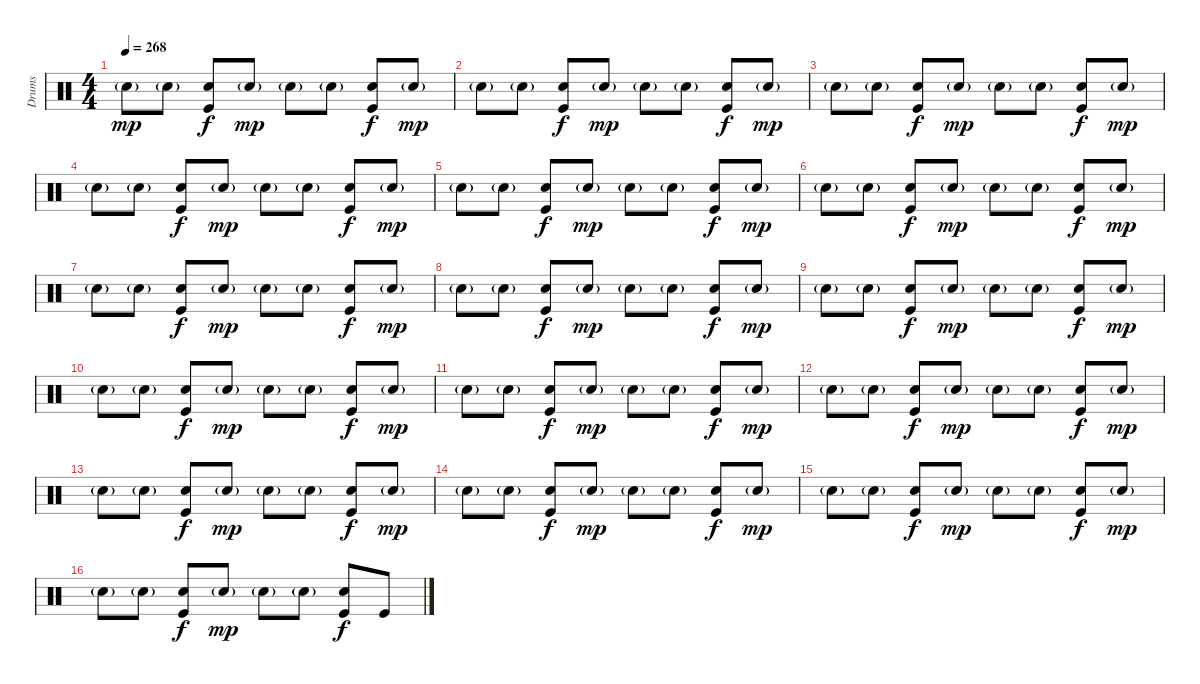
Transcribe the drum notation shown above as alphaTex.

\track ("Drums" "Drums") {instrument percussion}
\staff {score}
\articulation defaults
\ts (4 4)
\tempo 268
\clef neutral
\ks c "Electric Snare (hit)"{g}.8{dy mp} "Electric Snare (hit)"{g}.8
("Electric Snare (hit)" "Kick (hit)").8{dy f} "Electric Snare (hit)"{g}.8{dy mp} "Electric Snare (hit)"{g}.8 "Electric Snare (hit)"{g}.8 ("Electric Snare (hit)" "Kick (hit)").8{dy f} "Electric Snare (hit)"{g}.8{dy mp} |
"Electric Snare (hit)"{g}.8 "Electric Snare (hit)"{g}.8 ("Electric Snare (hit)" "Kick (hit)").8{dy f} "Electric Snare (hit)"{g}.8{dy mp} "Electric Snare (hit)"{g}.8 "Electric Snare (hit)"{g}.8 ("Electric Snare (hit)" "Kick (hit)").8{dy f} "Electric Snare (hit)"{g}.8{dy mp} |
"Electric Snare (hit)"{g}.8 "Electric Snare (hit)"{g}.8 ("Electric Snare (hit)" "Kick (hit)").8{dy f} "Electric Snare (hit)"{g}.8{dy mp} "Electric Snare (hit)"{g}.8 "Electric Snare (hit)"{g}.8 ("Electric Snare (hit)" "Kick (hit)").8{dy f} "Electric Snare (hit)"{g}.8{dy mp} |
"Electric Snare (hit)"{g}.8 "Electric Snare (hit)"{g}.8 ("Electric Snare (hit)" "Kick (hit)").8{dy f} "Electric Snare (hit)"{g}.8{dy mp} "Electric Snare (hit)"{g}.8 "Electric Snare (hit)"{g}.8 ("Electric Snare (hit)" "Kick (hit)").8{dy f} "Electric Snare (hit)"{g}.8{dy mp} |
"Electric Snare (hit)"{g}.8 "Electric Snare (hit)"{g}.8 ("Electric Snare (hit)" "Kick (hit)").8{dy f} "Electric Snare (hit)"{g}.8{dy mp} "Electric Snare (hit)"{g}.8 "Electric Snare (hit)"{g}.8 ("Electric Snare (hit)" "Kick (hit)").8{dy f} "Electric Snare (hit)"{g}.8{dy mp} |
"Electric Snare (hit)"{g}.8 "Electric Snare (hit)"{g}.8 ("Electric Snare (hit)" "Kick (hit)").8{dy f} "Electric Snare (hit)"{g}.8{dy mp} "Electric Snare (hit)"{g}.8 "Electric Snare (hit)"{g}.8 ("Electric Snare (hit)" "Kick (hit)").8{dy f} "Electric Snare (hit)"{g}.8{dy mp} |
"Electric Snare (hit)"{g}.8 "Electric Snare (hit)"{g}.8 ("Electric Snare (hit)" "Kick (hit)").8{dy f} "Electric Snare (hit)"{g}.8{dy mp} "Electric Snare (hit)"{g}.8 "Electric Snare (hit)"{g}.8 ("Electric Snare (hit)" "Kick (hit)").8{dy f} "Electric Snare (hit)"{g}.8{dy mp} |
"Electric Snare (hit)"{g}.8 "Electric Snare (hit)"{g}.8 ("Electric Snare (hit)" "Kick (hit)").8{dy f} "Electric Snare (hit)"{g}.8{dy mp} "Electric Snare (hit)"{g}.8 "Electric Snare (hit)"{g}.8 ("Electric Snare (hit)" "Kick (hit)").8{dy f} "Electric Snare (hit)"{g}.8{dy mp} |
"Electric Snare (hit)"{g}.8 "Electric Snare (hit)"{g}.8 ("Electric Snare (hit)" "Kick (hit)").8{dy f} "Electric Snare (hit)"{g}.8{dy mp} "Electric Snare (hit)"{g}.8 "Electric Snare (hit)"{g}.8 ("Electric Snare (hit)" "Kick (hit)").8{dy f} "Electric Snare (hit)"{g}.8{dy mp} |
"Electric Snare (hit)"{g}.8 "Electric Snare (hit)"{g}.8 ("Electric Snare (hit)" "Kick (hit)").8{dy f} "Electric Snare (hit)"{g}.8{dy mp} "Electric Snare (hit)"{g}.8 "Electric Snare (hit)"{g}.8 ("Electric Snare (hit)" "Kick (hit)").8{dy f} "Electric Snare (hit)"{g}.8{dy mp} |
"Electric Snare (hit)"{g}.8 "Electric Snare (hit)"{g}.8 ("Electric Snare (hit)" "Kick (hit)").8{dy f} "Electric Snare (hit)"{g}.8{dy mp} "Electric Snare (hit)"{g}.8 "Electric Snare (hit)"{g}.8 ("Electric Snare (hit)" "Kick (hit)").8{dy f} "Electric Snare (hit)"{g}.8{dy mp} |
"Electric Snare (hit)"{g}.8 "Electric Snare (hit)"{g}.8 ("Electric Snare (hit)" "Kick (hit)").8{dy f} "Electric Snare (hit)"{g}.8{dy mp} "Electric Snare (hit)"{g}.8 "Electric Snare (hit)"{g}.8 ("Electric Snare (hit)" "Kick (hit)").8{dy f} "Electric Snare (hit)"{g}.8{dy mp} |
"Electric Snare (hit)"{g}.8 "Electric Snare (hit)"{g}.8 ("Electric Snare (hit)" "Kick (hit)").8{dy f} "Electric Snare (hit)"{g}.8{dy mp} "Electric Snare (hit)"{g}.8 "Electric Snare (hit)"{g}.8 ("Electric Snare (hit)" "Kick (hit)").8{dy f} "Electric Snare (hit)"{g}.8{dy mp} |
"Electric Snare (hit)"{g}.8 "Electric Snare (hit)"{g}.8 ("Electric Snare (hit)" "Kick (hit)").8{dy f} "Electric Snare (hit)"{g}.8{dy mp} "Electric Snare (hit)"{g}.8 "Electric Snare (hit)"{g}.8 ("Electric Snare (hit)" "Kick (hit)").8{dy f} "Electric Snare (hit)"{g}.8{dy mp} |
"Electric Snare (hit)"{g}.8 "Electric Snare (hit)"{g}.8 ("Electric Snare (hit)" "Kick (hit)").8{dy f} "Electric Snare (hit)"{g}.8{dy mp} "Electric Snare (hit)"{g}.8 "Electric Snare (hit)"{g}.8 ("Electric Snare (hit)" "Kick (hit)").8{dy f} "Electric Snare (hit)"{g}.8{dy mp} |
"Electric Snare (hit)"{g}.8 "Electric Snare (hit)"{g}.8 ("Electric Snare (hit)" "Kick (hit)").8{dy f} "Electric Snare (hit)"{g}.8{dy mp} "Electric Snare (hit)"{g}.8 "Electric Snare (hit)"{g}.8 ("Electric Snare (hit)" "Kick (hit)").8{dy f} "Kick (hit)".8
